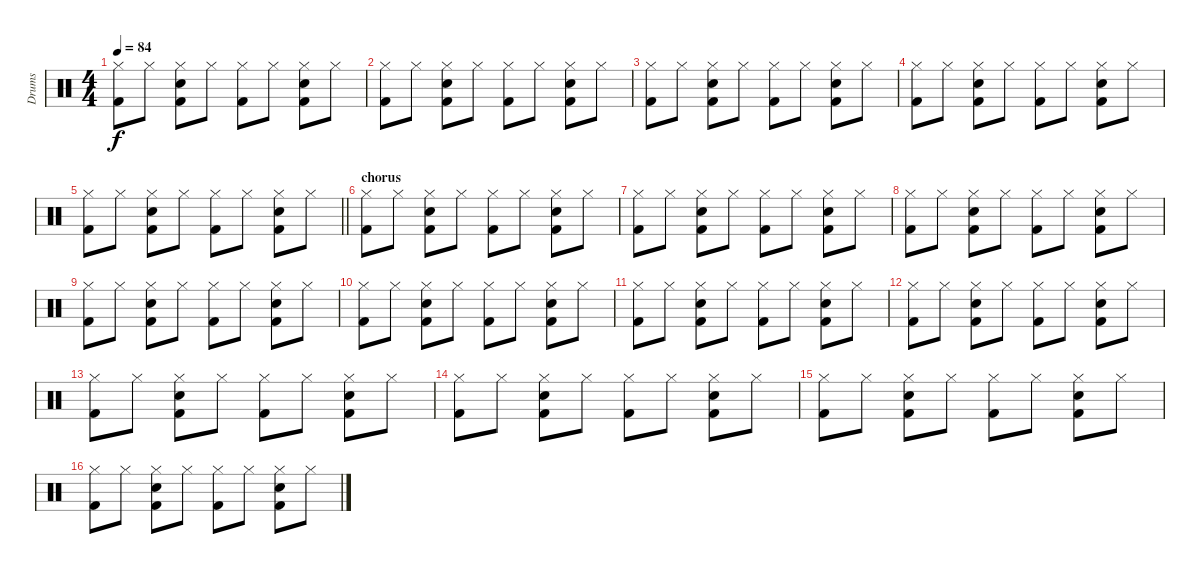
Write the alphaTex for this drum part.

\track ("Drums" "Drums") {instrument percussion}
\staff {score}
\articulation defaults
\ts (4 4)
\tempo 84
\clef neutral
\ks c
("Hi-Hat (closed)" "Kick (hit) 2").8{dy f} "Hi-Hat (closed)".8 ("Hi-Hat (closed)" "Snare (hit) 2" "Kick (hit) 2").8 "Hi-Hat (closed)".8 ("Hi-Hat (closed)" "Kick (hit) 2").8 "Hi-Hat (closed)".8 ("Hi-Hat (closed)" "Snare (hit) 2" "Kick (hit) 2").8 "Hi-Hat (closed)".8 |
("Hi-Hat (closed)" "Kick (hit) 2").8 "Hi-Hat (closed)".8 ("Hi-Hat (closed)" "Snare (hit) 2" "Kick (hit) 2").8 "Hi-Hat (closed)".8 ("Hi-Hat (closed)" "Kick (hit) 2").8 "Hi-Hat (closed)".8 ("Hi-Hat (closed)" "Snare (hit) 2" "Kick (hit) 2").8 "Hi-Hat (closed)".8 |
("Hi-Hat (closed)" "Kick (hit) 2").8 "Hi-Hat (closed)".8 ("Hi-Hat (closed)" "Snare (hit) 2" "Kick (hit) 2").8 "Hi-Hat (closed)".8 ("Hi-Hat (closed)" "Kick (hit) 2").8 "Hi-Hat (closed)".8 ("Hi-Hat (closed)" "Snare (hit) 2" "Kick (hit) 2").8 "Hi-Hat (closed)".8 |
("Hi-Hat (closed)" "Kick (hit) 2").8 "Hi-Hat (closed)".8 ("Hi-Hat (closed)" "Snare (hit) 2" "Kick (hit) 2").8 "Hi-Hat (closed)".8 ("Hi-Hat (closed)" "Kick (hit) 2").8 "Hi-Hat (closed)".8 ("Hi-Hat (closed)" "Snare (hit) 2" "Kick (hit) 2").8 "Hi-Hat (closed)".8 |
\barLineRight lightlight
("Hi-Hat (closed)" "Kick (hit) 2").8 "Hi-Hat (closed)".8 ("Hi-Hat (closed)" "Snare (hit) 2" "Kick (hit) 2").8 "Hi-Hat (closed)".8 ("Hi-Hat (closed)" "Kick (hit) 2").8 "Hi-Hat (closed)".8 ("Hi-Hat (closed)" "Snare (hit) 2" "Kick (hit) 2").8 "Hi-Hat (closed)".8 |
\section ("" "chorus")
("Hi-Hat (closed)" "Kick (hit) 2").8 "Hi-Hat (closed)".8 ("Hi-Hat (closed)" "Snare (hit) 2" "Kick (hit) 2").8 "Hi-Hat (closed)".8 ("Hi-Hat (closed)" "Kick (hit) 2").8 "Hi-Hat (closed)".8 ("Hi-Hat (closed)" "Snare (hit) 2" "Kick (hit) 2").8 "Hi-Hat (closed)".8 |
("Hi-Hat (closed)" "Kick (hit) 2").8 "Hi-Hat (closed)".8 ("Hi-Hat (closed)" "Snare (hit) 2" "Kick (hit) 2").8 "Hi-Hat (closed)".8 ("Hi-Hat (closed)" "Kick (hit) 2").8 "Hi-Hat (closed)".8 ("Hi-Hat (closed)" "Snare (hit) 2" "Kick (hit) 2").8 "Hi-Hat (closed)".8 |
("Hi-Hat (closed)" "Kick (hit) 2").8 "Hi-Hat (closed)".8 ("Hi-Hat (closed)" "Snare (hit) 2" "Kick (hit) 2").8 "Hi-Hat (closed)".8 ("Hi-Hat (closed)" "Kick (hit) 2").8 "Hi-Hat (closed)".8 ("Hi-Hat (closed)" "Snare (hit) 2" "Kick (hit) 2").8 "Hi-Hat (closed)".8 |
("Hi-Hat (closed)" "Kick (hit) 2").8 "Hi-Hat (closed)".8 ("Hi-Hat (closed)" "Snare (hit) 2" "Kick (hit) 2").8 "Hi-Hat (closed)".8 ("Hi-Hat (closed)" "Kick (hit) 2").8 "Hi-Hat (closed)".8 ("Hi-Hat (closed)" "Snare (hit) 2" "Kick (hit) 2").8 "Hi-Hat (closed)".8 |
("Hi-Hat (closed)" "Kick (hit) 2").8 "Hi-Hat (closed)".8 ("Hi-Hat (closed)" "Snare (hit) 2" "Kick (hit) 2").8 "Hi-Hat (closed)".8 ("Hi-Hat (closed)" "Kick (hit) 2").8 "Hi-Hat (closed)".8 ("Hi-Hat (closed)" "Snare (hit) 2" "Kick (hit) 2").8 "Hi-Hat (closed)".8 |
("Hi-Hat (closed)" "Kick (hit) 2").8 "Hi-Hat (closed)".8 ("Hi-Hat (closed)" "Snare (hit) 2" "Kick (hit) 2").8 "Hi-Hat (closed)".8 ("Hi-Hat (closed)" "Kick (hit) 2").8 "Hi-Hat (closed)".8 ("Hi-Hat (closed)" "Snare (hit) 2" "Kick (hit) 2").8 "Hi-Hat (closed)".8 |
("Hi-Hat (closed)" "Kick (hit) 2").8 "Hi-Hat (closed)".8 ("Hi-Hat (closed)" "Snare (hit) 2" "Kick (hit) 2").8 "Hi-Hat (closed)".8 ("Hi-Hat (closed)" "Kick (hit) 2").8 "Hi-Hat (closed)".8 ("Hi-Hat (closed)" "Snare (hit) 2" "Kick (hit) 2").8 "Hi-Hat (closed)".8 |
("Hi-Hat (closed)" "Kick (hit) 2").8 "Hi-Hat (closed)".8 ("Hi-Hat (closed)" "Snare (hit) 2" "Kick (hit) 2").8 "Hi-Hat (closed)".8 ("Hi-Hat (closed)" "Kick (hit) 2").8 "Hi-Hat (closed)".8 ("Hi-Hat (closed)" "Snare (hit) 2" "Kick (hit) 2").8 "Hi-Hat (closed)".8 |
("Hi-Hat (closed)" "Kick (hit) 2").8 "Hi-Hat (closed)".8 ("Hi-Hat (closed)" "Snare (hit) 2" "Kick (hit) 2").8 "Hi-Hat (closed)".8 ("Hi-Hat (closed)" "Kick (hit) 2").8 "Hi-Hat (closed)".8 ("Hi-Hat (closed)" "Snare (hit) 2" "Kick (hit) 2").8 "Hi-Hat (closed)".8 |
("Hi-Hat (closed)" "Kick (hit) 2").8 "Hi-Hat (closed)".8 ("Hi-Hat (closed)" "Snare (hit) 2" "Kick (hit) 2").8 "Hi-Hat (closed)".8 ("Hi-Hat (closed)" "Kick (hit) 2").8 "Hi-Hat (closed)".8 ("Hi-Hat (closed)" "Snare (hit) 2" "Kick (hit) 2").8 "Hi-Hat (closed)".8 |
("Hi-Hat (closed)" "Kick (hit) 2").8 "Hi-Hat (closed)".8 ("Hi-Hat (closed)" "Snare (hit) 2" "Kick (hit) 2").8 "Hi-Hat (closed)".8 ("Hi-Hat (closed)" "Kick (hit) 2").8 "Hi-Hat (closed)".8 ("Hi-Hat (closed)" "Snare (hit) 2" "Kick (hit) 2").8 "Hi-Hat (closed)".8
